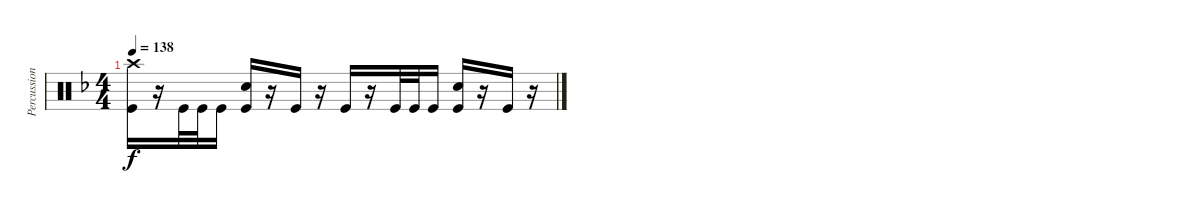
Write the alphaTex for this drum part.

\track ("Percussion" "Percussion") {instrument percussion}
\staff {score}
\articulation defaults
\ts (4 4)
\tempo 138
\clef neutral
\ks f
("Crash high (hit)" "Kick (hit)").16{dy f} r.16 "Kick (hit)".32 "Kick (hit)".32 "Kick (hit)".16 ("Electric Snare (hit)" "Kick (hit)").16 r.16 "Kick (hit)".16 r.16 "Kick (hit)".16 r.16 "Kick (hit)".32 "Kick (hit)".32 "Kick (hit)".16 ("Electric Snare (hit)" "Kick (hit)").16 r.16 "Kick (hit)".16 r.16
